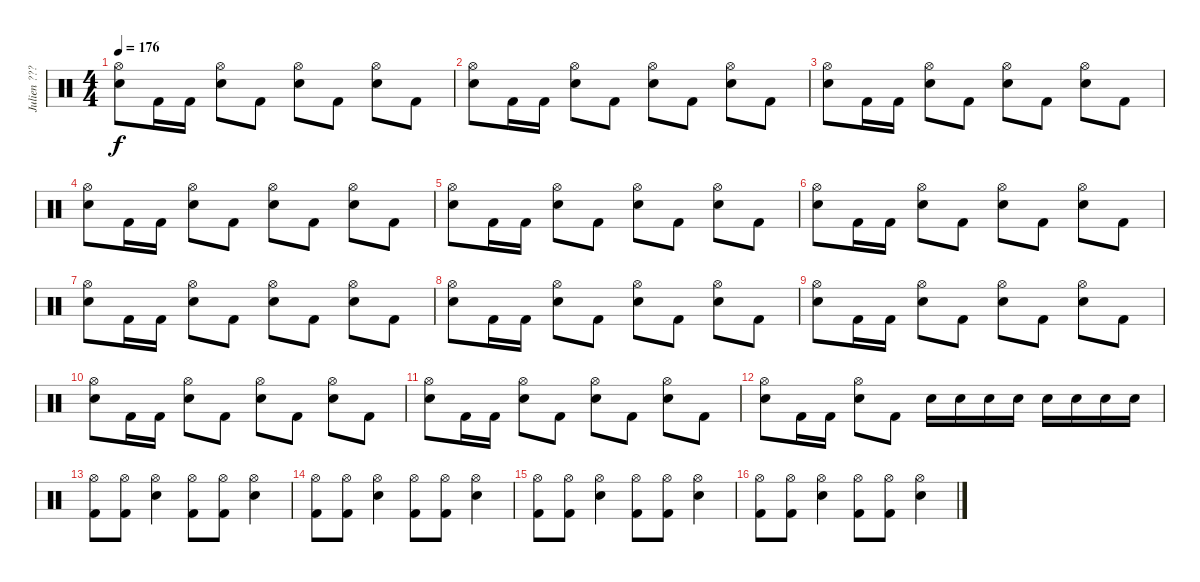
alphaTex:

\track ("Julien ??? (Drum)" "Julien ???") {instrument percussion}
\staff {score}
\articulation defaults
\ts (4 4)
\tempo 176
\clef neutral
\ks c
("Hi-Hat (open)" "Electric Snare (hit)").8{dy f} "Kick (hit) 2".16 "Kick (hit) 2".16 ("Hi-Hat (open)" "Electric Snare (hit)").8 "Kick (hit) 2".8 ("Hi-Hat (open)" "Electric Snare (hit)").8 "Kick (hit) 2".8 ("Hi-Hat (open)" "Electric Snare (hit)").8 "Kick (hit) 2".8 |
("Hi-Hat (open)" "Electric Snare (hit)").8 "Kick (hit) 2".16 "Kick (hit) 2".16 ("Hi-Hat (open)" "Electric Snare (hit)").8 "Kick (hit) 2".8 ("Hi-Hat (open)" "Electric Snare (hit)").8 "Kick (hit) 2".8 ("Hi-Hat (open)" "Electric Snare (hit)").8 "Kick (hit) 2".8 |
("Hi-Hat (open)" "Electric Snare (hit)").8 "Kick (hit) 2".16 "Kick (hit) 2".16 ("Hi-Hat (open)" "Electric Snare (hit)").8 "Kick (hit) 2".8 ("Hi-Hat (open)" "Electric Snare (hit)").8 "Kick (hit) 2".8 ("Hi-Hat (open)" "Electric Snare (hit)").8 "Kick (hit) 2".8 |
("Hi-Hat (open)" "Electric Snare (hit)").8 "Kick (hit) 2".16 "Kick (hit) 2".16 ("Hi-Hat (open)" "Electric Snare (hit)").8 "Kick (hit) 2".8 ("Hi-Hat (open)" "Electric Snare (hit)").8 "Kick (hit) 2".8 ("Hi-Hat (open)" "Electric Snare (hit)").8 "Kick (hit) 2".8 |
("Hi-Hat (open)" "Electric Snare (hit)").8 "Kick (hit) 2".16 "Kick (hit) 2".16 ("Hi-Hat (open)" "Electric Snare (hit)").8 "Kick (hit) 2".8 ("Hi-Hat (open)" "Electric Snare (hit)").8 "Kick (hit) 2".8 ("Hi-Hat (open)" "Electric Snare (hit)").8 "Kick (hit) 2".8 |
("Hi-Hat (open)" "Electric Snare (hit)").8 "Kick (hit) 2".16 "Kick (hit) 2".16 ("Hi-Hat (open)" "Electric Snare (hit)").8 "Kick (hit) 2".8 ("Hi-Hat (open)" "Electric Snare (hit)").8 "Kick (hit) 2".8 ("Hi-Hat (open)" "Electric Snare (hit)").8 "Kick (hit) 2".8 |
("Hi-Hat (open)" "Electric Snare (hit)").8 "Kick (hit) 2".16 "Kick (hit) 2".16 ("Hi-Hat (open)" "Electric Snare (hit)").8 "Kick (hit) 2".8 ("Hi-Hat (open)" "Electric Snare (hit)").8 "Kick (hit) 2".8 ("Hi-Hat (open)" "Electric Snare (hit)").8 "Kick (hit) 2".8 |
("Hi-Hat (open)" "Electric Snare (hit)").8 "Kick (hit) 2".16 "Kick (hit) 2".16 ("Hi-Hat (open)" "Electric Snare (hit)").8 "Kick (hit) 2".8 ("Hi-Hat (open)" "Electric Snare (hit)").8 "Kick (hit) 2".8 ("Hi-Hat (open)" "Electric Snare (hit)").8 "Kick (hit) 2".8 |
("Hi-Hat (open)" "Electric Snare (hit)").8 "Kick (hit) 2".16 "Kick (hit) 2".16 ("Hi-Hat (open)" "Electric Snare (hit)").8 "Kick (hit) 2".8 ("Hi-Hat (open)" "Electric Snare (hit)").8 "Kick (hit) 2".8 ("Hi-Hat (open)" "Electric Snare (hit)").8 "Kick (hit) 2".8 |
("Hi-Hat (open)" "Electric Snare (hit)").8 "Kick (hit) 2".16 "Kick (hit) 2".16 ("Hi-Hat (open)" "Electric Snare (hit)").8 "Kick (hit) 2".8 ("Hi-Hat (open)" "Electric Snare (hit)").8 "Kick (hit) 2".8 ("Hi-Hat (open)" "Electric Snare (hit)").8 "Kick (hit) 2".8 |
("Hi-Hat (open)" "Electric Snare (hit)").8 "Kick (hit) 2".16 "Kick (hit) 2".16 ("Hi-Hat (open)" "Electric Snare (hit)").8 "Kick (hit) 2".8 ("Hi-Hat (open)" "Electric Snare (hit)").8 "Kick (hit) 2".8 ("Hi-Hat (open)" "Electric Snare (hit)").8 "Kick (hit) 2".8 |
("Hi-Hat (open)" "Electric Snare (hit)").8 "Kick (hit) 2".16 "Kick (hit) 2".16 ("Hi-Hat (open)" "Electric Snare (hit)").8 "Kick (hit) 2".8 "Electric Snare (hit)".16 "Electric Snare (hit)".16 "Electric Snare (hit)".16 "Electric Snare (hit)".16 "Electric Snare (hit)".16 "Electric Snare (hit)".16 "Electric Snare (hit)".16 "Electric Snare (hit)".16 |
("Hi-Hat (open)" "Kick (hit) 2").8 ("Hi-Hat (open)" "Kick (hit) 2").8 ("Hi-Hat (open)" "Electric Snare (hit)").4 ("Hi-Hat (open)" "Kick (hit) 2").8 ("Hi-Hat (open)" "Kick (hit) 2").8 ("Hi-Hat (open)" "Electric Snare (hit)").4 |
("Hi-Hat (open)" "Kick (hit) 2").8 ("Hi-Hat (open)" "Kick (hit) 2").8 ("Hi-Hat (open)" "Electric Snare (hit)").4 ("Hi-Hat (open)" "Kick (hit) 2").8 ("Hi-Hat (open)" "Kick (hit) 2").8 ("Hi-Hat (open)" "Electric Snare (hit)").4 |
("Hi-Hat (open)" "Kick (hit) 2").8 ("Hi-Hat (open)" "Kick (hit) 2").8 ("Hi-Hat (open)" "Electric Snare (hit)").4 ("Hi-Hat (open)" "Kick (hit) 2").8 ("Hi-Hat (open)" "Kick (hit) 2").8 ("Hi-Hat (open)" "Electric Snare (hit)").4 |
("Hi-Hat (open)" "Kick (hit) 2").8 ("Hi-Hat (open)" "Kick (hit) 2").8 ("Hi-Hat (open)" "Electric Snare (hit)").4 ("Hi-Hat (open)" "Kick (hit) 2").8 ("Hi-Hat (open)" "Kick (hit) 2").8 ("Hi-Hat (open)" "Electric Snare (hit)").4
